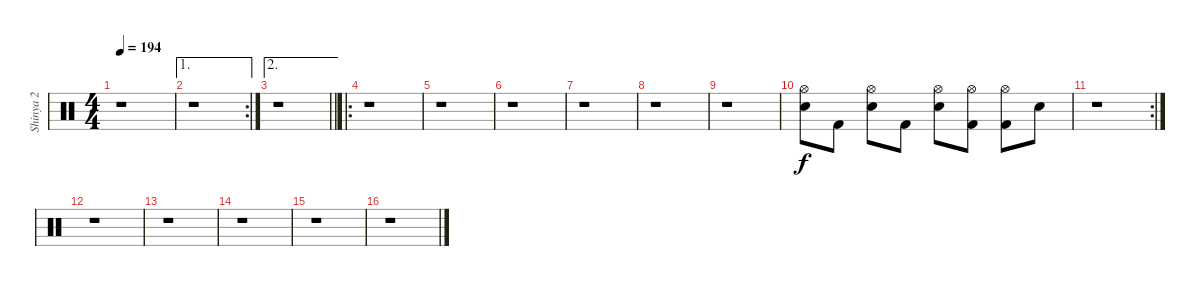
\track ("Shinya 2" "Shinya 2") {instrument percussion}
\staff {score}
\articulation defaults
\ts (4 4)
\tempo 194
\clef neutral
\ks c
r.1{dy f} |
\ae 1
\rc 2
r.1 |
\ae 2
\barLineRight lightlight
r.1 |
\ro
r.1 |
r.1 |
r.1 |
r.1 |
r.1 |
r.1 |
("Hi-Hat (open)" "Snare (hit) 2").8 "Kick (hit) 2".8 ("Hi-Hat (open)" "Snare (hit) 2").8 "Kick (hit) 2".8 ("Hi-Hat (open)" "Snare (hit) 2").8 ("Hi-Hat (open)" "Kick (hit) 2").8 ("Hi-Hat (open)" "Kick (hit) 2").8 "Snare (hit) 2".8 |
\rc 2
r.1 |
r.1 |
r.1 |
r.1 |
r.1 |
r.1
